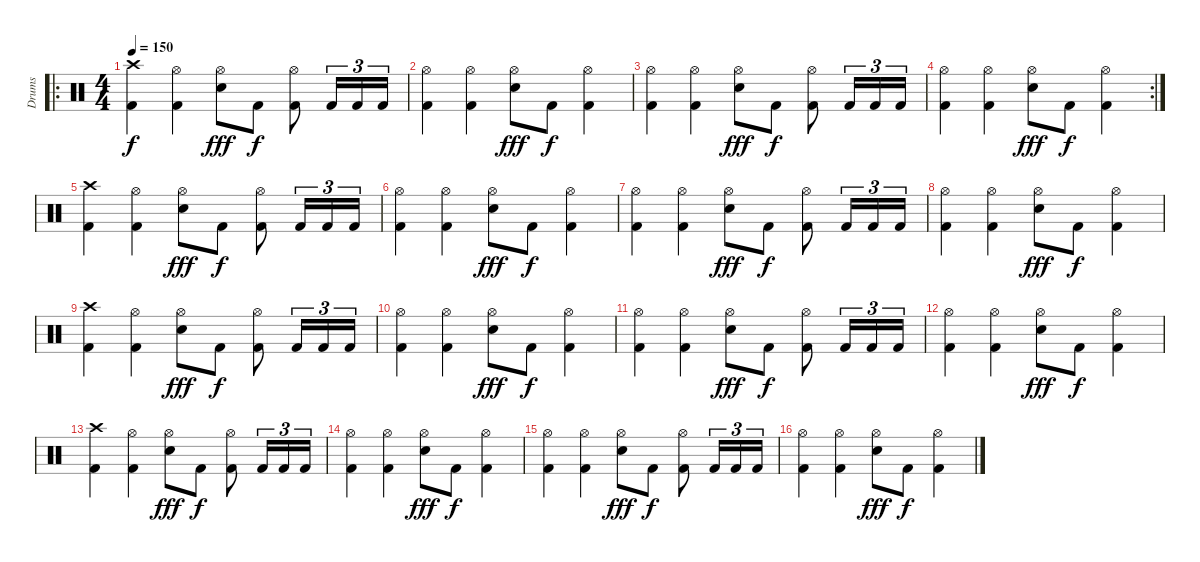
\track ("Drums" "Drums") {instrument percussion}
\staff {score}
\articulation defaults
\ro
\ts (4 4)
\tempo 150
\clef neutral
\ks c
("Crash high (hit)" "Kick (hit) 2").4{dy f} ("Hi-Hat (open)" "Kick (hit) 2").4 ("Hi-Hat (open)" "Snare (hit) 2").8{dy fff} "Kick (hit) 2".8{dy f} ("Hi-Hat (open)" "Kick (hit) 2").8 "Kick (hit) 2".16{tu (3 2)} "Kick (hit) 2".16{tu (3 2)} "Kick (hit) 2".16{tu (3 2)} |
("Hi-Hat (open)" "Kick (hit) 2").4 ("Hi-Hat (open)" "Kick (hit) 2").4 ("Hi-Hat (open)" "Snare (hit) 2").8{dy fff} "Kick (hit) 2".8{dy f} ("Hi-Hat (open)" "Kick (hit) 2").4 |
("Hi-Hat (open)" "Kick (hit) 2").4 ("Hi-Hat (open)" "Kick (hit) 2").4 ("Hi-Hat (open)" "Snare (hit) 2").8{dy fff} "Kick (hit) 2".8{dy f} ("Hi-Hat (open)" "Kick (hit) 2").8 "Kick (hit) 2".16{tu (3 2)} "Kick (hit) 2".16{tu (3 2)} "Kick (hit) 2".16{tu (3 2)} |
\rc 2
("Hi-Hat (open)" "Kick (hit) 2").4 ("Hi-Hat (open)" "Kick (hit) 2").4 ("Hi-Hat (open)" "Snare (hit) 2").8{dy fff} "Kick (hit) 2".8{dy f} ("Hi-Hat (open)" "Kick (hit) 2").4 |
("Crash high (hit)" "Kick (hit) 2").4 ("Hi-Hat (open)" "Kick (hit) 2").4 ("Hi-Hat (open)" "Snare (hit) 2").8{dy fff} "Kick (hit) 2".8{dy f} ("Hi-Hat (open)" "Kick (hit) 2").8 "Kick (hit) 2".16{tu (3 2)} "Kick (hit) 2".16{tu (3 2)} "Kick (hit) 2".16{tu (3 2)} |
("Hi-Hat (open)" "Kick (hit) 2").4 ("Hi-Hat (open)" "Kick (hit) 2").4 ("Hi-Hat (open)" "Snare (hit) 2").8{dy fff} "Kick (hit) 2".8{dy f} ("Hi-Hat (open)" "Kick (hit) 2").4 |
("Hi-Hat (open)" "Kick (hit) 2").4 ("Hi-Hat (open)" "Kick (hit) 2").4 ("Hi-Hat (open)" "Snare (hit) 2").8{dy fff} "Kick (hit) 2".8{dy f} ("Hi-Hat (open)" "Kick (hit) 2").8 "Kick (hit) 2".16{tu (3 2)} "Kick (hit) 2".16{tu (3 2)} "Kick (hit) 2".16{tu (3 2)} |
("Hi-Hat (open)" "Kick (hit) 2").4 ("Hi-Hat (open)" "Kick (hit) 2").4 ("Hi-Hat (open)" "Snare (hit) 2").8{dy fff} "Kick (hit) 2".8{dy f} ("Hi-Hat (open)" "Kick (hit) 2").4 |
("Crash high (hit)" "Kick (hit) 2").4 ("Hi-Hat (open)" "Kick (hit) 2").4 ("Hi-Hat (open)" "Snare (hit) 2").8{dy fff} "Kick (hit) 2".8{dy f} ("Hi-Hat (open)" "Kick (hit) 2").8 "Kick (hit) 2".16{tu (3 2)} "Kick (hit) 2".16{tu (3 2)} "Kick (hit) 2".16{tu (3 2)} |
("Hi-Hat (open)" "Kick (hit) 2").4 ("Hi-Hat (open)" "Kick (hit) 2").4 ("Hi-Hat (open)" "Snare (hit) 2").8{dy fff} "Kick (hit) 2".8{dy f} ("Hi-Hat (open)" "Kick (hit) 2").4 |
("Hi-Hat (open)" "Kick (hit) 2").4 ("Hi-Hat (open)" "Kick (hit) 2").4 ("Hi-Hat (open)" "Snare (hit) 2").8{dy fff} "Kick (hit) 2".8{dy f} ("Hi-Hat (open)" "Kick (hit) 2").8 "Kick (hit) 2".16{tu (3 2)} "Kick (hit) 2".16{tu (3 2)} "Kick (hit) 2".16{tu (3 2)} |
("Hi-Hat (open)" "Kick (hit) 2").4 ("Hi-Hat (open)" "Kick (hit) 2").4 ("Hi-Hat (open)" "Snare (hit) 2").8{dy fff} "Kick (hit) 2".8{dy f} ("Hi-Hat (open)" "Kick (hit) 2").4 |
("Crash high (hit)" "Kick (hit) 2").4 ("Hi-Hat (open)" "Kick (hit) 2").4 ("Hi-Hat (open)" "Snare (hit) 2").8{dy fff} "Kick (hit) 2".8{dy f} ("Hi-Hat (open)" "Kick (hit) 2").8 "Kick (hit) 2".16{tu (3 2)} "Kick (hit) 2".16{tu (3 2)} "Kick (hit) 2".16{tu (3 2)} |
("Hi-Hat (open)" "Kick (hit) 2").4 ("Hi-Hat (open)" "Kick (hit) 2").4 ("Hi-Hat (open)" "Snare (hit) 2").8{dy fff} "Kick (hit) 2".8{dy f} ("Hi-Hat (open)" "Kick (hit) 2").4 |
("Hi-Hat (open)" "Kick (hit) 2").4 ("Hi-Hat (open)" "Kick (hit) 2").4 ("Hi-Hat (open)" "Snare (hit) 2").8{dy fff} "Kick (hit) 2".8{dy f} ("Hi-Hat (open)" "Kick (hit) 2").8 "Kick (hit) 2".16{tu (3 2)} "Kick (hit) 2".16{tu (3 2)} "Kick (hit) 2".16{tu (3 2)} |
("Hi-Hat (open)" "Kick (hit) 2").4 ("Hi-Hat (open)" "Kick (hit) 2").4 ("Hi-Hat (open)" "Snare (hit) 2").8{dy fff} "Kick (hit) 2".8{dy f} ("Hi-Hat (open)" "Kick (hit) 2").4
